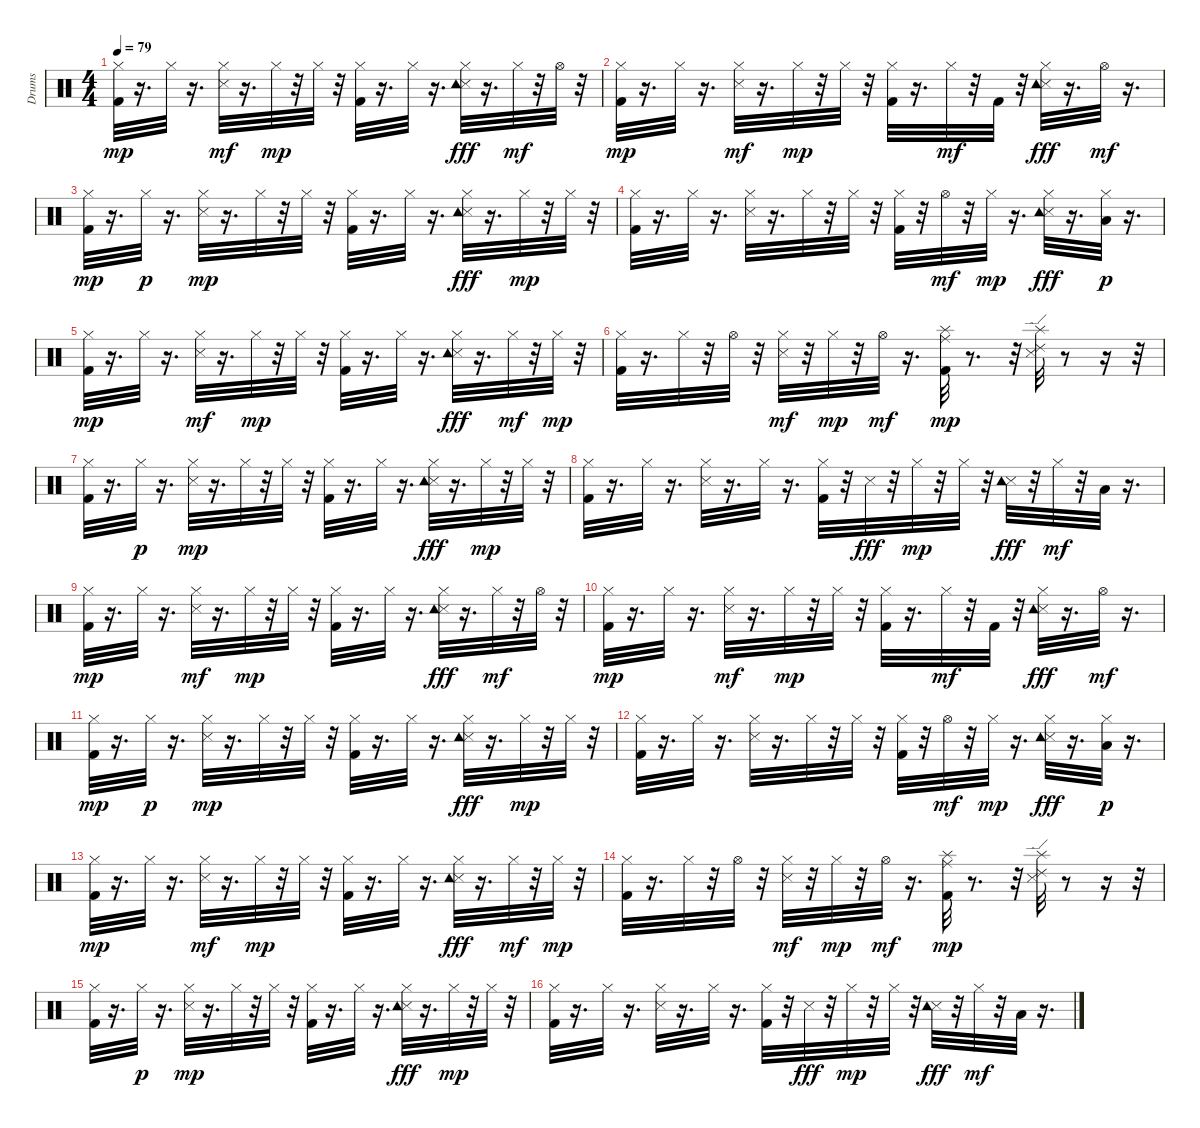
\track ("Drums" "Drums") {instrument percussion}
\staff {score}
\articulation defaults
\ts (4 4)
\tempo 79
\clef neutral
\ks c
("Kick (hit) 2" "Hi-Hat (closed)").32{dy mp} r.16{d} "Hi-Hat (closed)".32 r.16{d} ("Snare (side stick) 3" "Hi-Hat (closed)").32{dy mf} r.16{d} "Hi-Hat (closed)".32{dy mp} r.32 "Hi-Hat (closed)".32 r.32 ("Kick (hit) 2" "Hi-Hat (closed)").32 r.16{d} "Hi-Hat (closed)".32 r.16{d} ("Snare (side stick) 3" "Hi-Hat (closed)" "Tambourine (hit)").32{dy fff} r.16{d} "Hi-Hat (closed)".32{dy mf} r.32 "Hi-Hat (open)".32 r.32 |
("Kick (hit) 2" "Hi-Hat (closed)").32{dy mp} r.16{d} "Hi-Hat (closed)".32 r.16{d} ("Snare (side stick) 3" "Hi-Hat (closed)").32{dy mf} r.16{d} "Hi-Hat (closed)".32{dy mp} r.32 "Hi-Hat (closed)".32 r.32 ("Kick (hit) 2" "Hi-Hat (closed)").32 r.16{d} "Hi-Hat (closed)".32{dy mf} r.32 "Kick (hit) 2".32 r.32 ("Snare (side stick) 3" "Hi-Hat (closed)" "Tambourine (hit)").32{dy fff} r.16{d} "Hi-Hat (open)".32{dy mf} r.16{d} |
("Kick (hit) 2" "Hi-Hat (closed)").32{dy mp} r.16{d} "Hi-Hat (closed)".32{dy p} r.16{d} ("Snare (side stick) 3" "Hi-Hat (closed)").32{dy mp} r.16{d} "Hi-Hat (closed)".32 r.32 "Hi-Hat (closed)".32 r.32 ("Kick (hit) 2" "Hi-Hat (closed)").32 r.16{d} "Hi-Hat (closed)".32 r.16{d} ("Snare (side stick) 3" "Hi-Hat (closed)" "Tambourine (hit)").32{dy fff} r.16{d} "Hi-Hat (closed)".32{dy mp} r.32 "Hi-Hat (closed)".32 r.32 |
("Kick (hit) 2" "Hi-Hat (closed)").32 r.16{d} "Hi-Hat (closed)".32 r.16{d} ("Snare (side stick) 3" "Hi-Hat (closed)").32 r.16{d} "Hi-Hat (closed)".32 r.32 "Hi-Hat (closed)".32 r.32 ("Kick (hit) 2" "Hi-Hat (closed)").32 r.32 "Hi-Hat (open)".32{dy mf} r.32 "Hi-Hat (closed)".32{dy mp} r.16{d} ("Snare (side stick) 3" "Hi-Hat (closed)" "Tambourine (hit)").32{dy fff} r.16{d} ("Low Floor Tom (hit)" "Hi-Hat (closed)").32{dy p} r.16{d} |
("Kick (hit) 2" "Hi-Hat (closed)").32{dy mp} r.16{d} "Hi-Hat (closed)".32 r.16{d} ("Snare (side stick) 3" "Hi-Hat (closed)").32{dy mf} r.16{d} "Hi-Hat (closed)".32{dy mp} r.32 "Hi-Hat (closed)".32 r.32 ("Kick (hit) 2" "Hi-Hat (closed)").32 r.16{d} "Hi-Hat (closed)".32 r.16{d} ("Snare (side stick) 3" "Hi-Hat (closed)" "Tambourine (hit)").32{dy fff} r.16{d} "Hi-Hat (closed)".32{dy mf} r.32 "Hi-Hat (closed)".32{dy mp} r.32 |
("Kick (hit) 2" "Hi-Hat (closed)").32 r.16{d} "Hi-Hat (closed)".32 r.32 "Hi-Hat (open)".32 r.32 ("Snare (side stick) 3" "Hi-Hat (closed)").32{dy mf} r.32 "Hi-Hat (closed)".32{dy mp} r.32 "Hi-Hat (open)".32{dy mf} r.16{d} ("Kick (hit) 2" "Ride (middle)" "Splash (hit)").32{dy mp} r.8{d} r.32 ("Snare (side stick) 3" "Splash (hit)" "Ride (edge) 2").32 r.8 r.16 r.32 |
("Kick (hit) 2" "Hi-Hat (closed)").32 r.16{d} "Hi-Hat (closed)".32{dy p} r.16{d} ("Snare (side stick) 3" "Hi-Hat (closed)").32{dy mp} r.16{d} "Hi-Hat (closed)".32 r.32 "Hi-Hat (closed)".32 r.32 ("Kick (hit) 2" "Hi-Hat (closed)").32 r.16{d} "Hi-Hat (closed)".32 r.16{d} ("Snare (side stick) 3" "Hi-Hat (closed)" "Tambourine (hit)").32{dy fff} r.16{d} "Hi-Hat (closed)".32{dy mp} r.32 "Hi-Hat (closed)".32 r.32 |
("Kick (hit) 2" "Hi-Hat (closed)").32 r.16{d} "Hi-Hat (closed)".32 r.16{d} ("Snare (side stick) 3" "Hi-Hat (closed)").32 r.16{d} "Hi-Hat (closed)".32 r.16{d} ("Kick (hit) 2" "Hi-Hat (closed)").32 r.32 "Snare (side stick) 3".32{dy fff} r.32 "Hi-Hat (closed)".32{dy mp} r.32 "Hi-Hat (closed)".32 r.32 ("Snare (side stick) 3" "Tambourine (hit)").32{dy fff} r.32 "Hi-Hat (closed)".32{dy mf} r.32 "Low Floor Tom (hit)".32 r.16{d} |
("Kick (hit) 2" "Hi-Hat (closed)").32{dy mp} r.16{d} "Hi-Hat (closed)".32 r.16{d} ("Snare (side stick) 3" "Hi-Hat (closed)").32{dy mf} r.16{d} "Hi-Hat (closed)".32{dy mp} r.32 "Hi-Hat (closed)".32 r.32 ("Kick (hit) 2" "Hi-Hat (closed)").32 r.16{d} "Hi-Hat (closed)".32 r.16{d} ("Snare (side stick) 3" "Hi-Hat (closed)" "Tambourine (hit)").32{dy fff} r.16{d} "Hi-Hat (closed)".32{dy mf} r.32 "Hi-Hat (open)".32 r.32 |
("Kick (hit) 2" "Hi-Hat (closed)").32{dy mp} r.16{d} "Hi-Hat (closed)".32 r.16{d} ("Snare (side stick) 3" "Hi-Hat (closed)").32{dy mf} r.16{d} "Hi-Hat (closed)".32{dy mp} r.32 "Hi-Hat (closed)".32 r.32 ("Kick (hit) 2" "Hi-Hat (closed)").32 r.16{d} "Hi-Hat (closed)".32{dy mf} r.32 "Kick (hit) 2".32 r.32 ("Snare (side stick) 3" "Hi-Hat (closed)" "Tambourine (hit)").32{dy fff} r.16{d} "Hi-Hat (open)".32{dy mf} r.16{d} |
("Kick (hit) 2" "Hi-Hat (closed)").32{dy mp} r.16{d} "Hi-Hat (closed)".32{dy p} r.16{d} ("Snare (side stick) 3" "Hi-Hat (closed)").32{dy mp} r.16{d} "Hi-Hat (closed)".32 r.32 "Hi-Hat (closed)".32 r.32 ("Kick (hit) 2" "Hi-Hat (closed)").32 r.16{d} "Hi-Hat (closed)".32 r.16{d} ("Snare (side stick) 3" "Hi-Hat (closed)" "Tambourine (hit)").32{dy fff} r.16{d} "Hi-Hat (closed)".32{dy mp} r.32 "Hi-Hat (closed)".32 r.32 |
("Kick (hit) 2" "Hi-Hat (closed)").32 r.16{d} "Hi-Hat (closed)".32 r.16{d} ("Snare (side stick) 3" "Hi-Hat (closed)").32 r.16{d} "Hi-Hat (closed)".32 r.32 "Hi-Hat (closed)".32 r.32 ("Kick (hit) 2" "Hi-Hat (closed)").32 r.32 "Hi-Hat (open)".32{dy mf} r.32 "Hi-Hat (closed)".32{dy mp} r.16{d} ("Snare (side stick) 3" "Hi-Hat (closed)" "Tambourine (hit)").32{dy fff} r.16{d} ("Low Floor Tom (hit)" "Hi-Hat (closed)").32{dy p} r.16{d} |
("Kick (hit) 2" "Hi-Hat (closed)").32{dy mp} r.16{d} "Hi-Hat (closed)".32 r.16{d} ("Snare (side stick) 3" "Hi-Hat (closed)").32{dy mf} r.16{d} "Hi-Hat (closed)".32{dy mp} r.32 "Hi-Hat (closed)".32 r.32 ("Kick (hit) 2" "Hi-Hat (closed)").32 r.16{d} "Hi-Hat (closed)".32 r.16{d} ("Snare (side stick) 3" "Hi-Hat (closed)" "Tambourine (hit)").32{dy fff} r.16{d} "Hi-Hat (closed)".32{dy mf} r.32 "Hi-Hat (closed)".32{dy mp} r.32 |
("Kick (hit) 2" "Hi-Hat (closed)").32 r.16{d} "Hi-Hat (closed)".32 r.32 "Hi-Hat (open)".32 r.32 ("Snare (side stick) 3" "Hi-Hat (closed)").32{dy mf} r.32 "Hi-Hat (closed)".32{dy mp} r.32 "Hi-Hat (open)".32{dy mf} r.16{d} ("Kick (hit) 2" "Ride (middle)" "Splash (hit)").32{dy mp} r.8{d} r.32 ("Snare (side stick) 3" "Splash (hit)" "Ride (edge) 2").32 r.8 r.16 r.32 |
("Kick (hit) 2" "Hi-Hat (closed)").32 r.16{d} "Hi-Hat (closed)".32{dy p} r.16{d} ("Snare (side stick) 3" "Hi-Hat (closed)").32{dy mp} r.16{d} "Hi-Hat (closed)".32 r.32 "Hi-Hat (closed)".32 r.32 ("Kick (hit) 2" "Hi-Hat (closed)").32 r.16{d} "Hi-Hat (closed)".32 r.16{d} ("Snare (side stick) 3" "Hi-Hat (closed)" "Tambourine (hit)").32{dy fff} r.16{d} "Hi-Hat (closed)".32{dy mp} r.32 "Hi-Hat (closed)".32 r.32 |
("Kick (hit) 2" "Hi-Hat (closed)").32 r.16{d} "Hi-Hat (closed)".32 r.16{d} ("Snare (side stick) 3" "Hi-Hat (closed)").32 r.16{d} "Hi-Hat (closed)".32 r.16{d} ("Kick (hit) 2" "Hi-Hat (closed)").32 r.32 "Snare (side stick) 3".32{dy fff} r.32 "Hi-Hat (closed)".32{dy mp} r.32 "Hi-Hat (closed)".32 r.32 ("Snare (side stick) 3" "Tambourine (hit)").32{dy fff} r.32 "Hi-Hat (closed)".32{dy mf} r.32 "Low Floor Tom (hit)".32 r.16{d}
